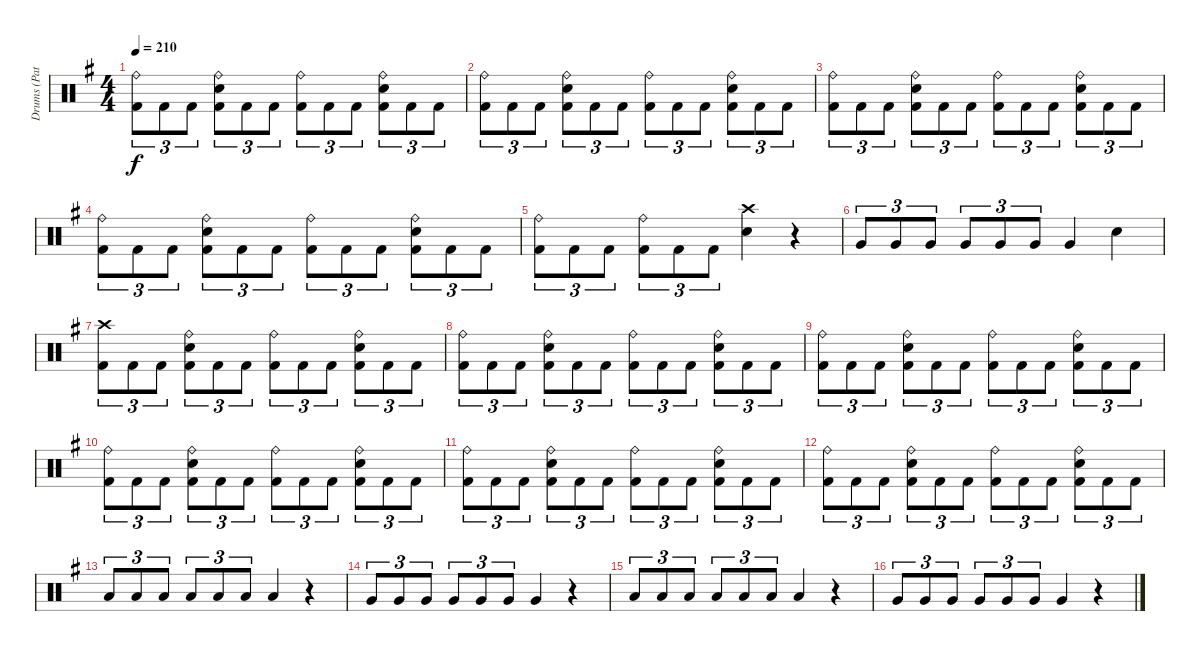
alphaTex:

\track ("Drums (Patrick Johansson)" "Drums (Pat") {instrument percussion}
\staff {score}
\articulation defaults
\ts (4 4)
\tempo 210
\clef neutral
\ks g
("Ride (bell)" "Kick (hit) 2").8{tu (3 2) dy f} "Kick (hit) 2".8{tu (3 2)} "Kick (hit) 2".8{tu (3 2)} ("Ride (bell)" "Electric Snare (hit)" "Kick (hit) 2").8{tu (3 2)} "Kick (hit) 2".8{tu (3 2)} "Kick (hit) 2".8{tu (3 2)} ("Ride (bell)" "Kick (hit) 2").8{tu (3 2)} "Kick (hit) 2".8{tu (3 2)} "Kick (hit) 2".8{tu (3 2)} ("Ride (bell)" "Electric Snare (hit)" "Kick (hit) 2").8{tu (3 2)} "Kick (hit) 2".8{tu (3 2)} "Kick (hit) 2".8{tu (3 2)} |
("Ride (bell)" "Kick (hit) 2").8{tu (3 2)} "Kick (hit) 2".8{tu (3 2)} "Kick (hit) 2".8{tu (3 2)} ("Ride (bell)" "Electric Snare (hit)" "Kick (hit) 2").8{tu (3 2)} "Kick (hit) 2".8{tu (3 2)} "Kick (hit) 2".8{tu (3 2)} ("Ride (bell)" "Kick (hit) 2").8{tu (3 2)} "Kick (hit) 2".8{tu (3 2)} "Kick (hit) 2".8{tu (3 2)} ("Ride (bell)" "Electric Snare (hit)" "Kick (hit) 2").8{tu (3 2)} "Kick (hit) 2".8{tu (3 2)} "Kick (hit) 2".8{tu (3 2)} |
("Ride (bell)" "Kick (hit) 2").8{tu (3 2)} "Kick (hit) 2".8{tu (3 2)} "Kick (hit) 2".8{tu (3 2)} ("Ride (bell)" "Electric Snare (hit)" "Kick (hit) 2").8{tu (3 2)} "Kick (hit) 2".8{tu (3 2)} "Kick (hit) 2".8{tu (3 2)} ("Ride (bell)" "Kick (hit) 2").8{tu (3 2)} "Kick (hit) 2".8{tu (3 2)} "Kick (hit) 2".8{tu (3 2)} ("Ride (bell)" "Electric Snare (hit)" "Kick (hit) 2").8{tu (3 2)} "Kick (hit) 2".8{tu (3 2)} "Kick (hit) 2".8{tu (3 2)} |
("Ride (bell)" "Kick (hit) 2").8{tu (3 2)} "Kick (hit) 2".8{tu (3 2)} "Kick (hit) 2".8{tu (3 2)} ("Ride (bell)" "Electric Snare (hit)" "Kick (hit) 2").8{tu (3 2)} "Kick (hit) 2".8{tu (3 2)} "Kick (hit) 2".8{tu (3 2)} ("Ride (bell)" "Kick (hit) 2").8{tu (3 2)} "Kick (hit) 2".8{tu (3 2)} "Kick (hit) 2".8{tu (3 2)} ("Ride (bell)" "Electric Snare (hit)" "Kick (hit) 2").8{tu (3 2)} "Kick (hit) 2".8{tu (3 2)} "Kick (hit) 2".8{tu (3 2)} |
("Ride (bell)" "Kick (hit) 2").8{tu (3 2)} "Kick (hit) 2".8{tu (3 2)} "Kick (hit) 2".8{tu (3 2)} ("Ride (bell)" "Kick (hit) 2").8{tu (3 2)} "Kick (hit) 2".8{tu (3 2)} "Kick (hit) 2".8{tu (3 2)} ("Crash high (hit)" "Electric Snare (hit)").4 r.4 |
"Very Low Tom (hit)".8{tu (3 2)} "Very Low Tom (hit)".8{tu (3 2)} "Very Low Tom (hit)".8{tu (3 2)} "Very Low Tom (hit)".8{tu (3 2)} "Very Low Tom (hit)".8{tu (3 2)} "Very Low Tom (hit)".8{tu (3 2)} "Very Low Tom (hit)".4 "Electric Snare (hit)".4 |
("Crash high (hit)" "Kick (hit) 2").8{tu (3 2)} "Kick (hit) 2".8{tu (3 2)} "Kick (hit) 2".8{tu (3 2)} ("Ride (bell)" "Electric Snare (hit)" "Kick (hit) 2").8{tu (3 2)} "Kick (hit) 2".8{tu (3 2)} "Kick (hit) 2".8{tu (3 2)} ("Ride (bell)" "Kick (hit) 2").8{tu (3 2)} "Kick (hit) 2".8{tu (3 2)} "Kick (hit) 2".8{tu (3 2)} ("Ride (bell)" "Electric Snare (hit)" "Kick (hit) 2").8{tu (3 2)} "Kick (hit) 2".8{tu (3 2)} "Kick (hit) 2".8{tu (3 2)} |
("Ride (bell)" "Kick (hit) 2").8{tu (3 2)} "Kick (hit) 2".8{tu (3 2)} "Kick (hit) 2".8{tu (3 2)} ("Ride (bell)" "Electric Snare (hit)" "Kick (hit) 2").8{tu (3 2)} "Kick (hit) 2".8{tu (3 2)} "Kick (hit) 2".8{tu (3 2)} ("Ride (bell)" "Kick (hit) 2").8{tu (3 2)} "Kick (hit) 2".8{tu (3 2)} "Kick (hit) 2".8{tu (3 2)} ("Ride (bell)" "Electric Snare (hit)" "Kick (hit) 2").8{tu (3 2)} "Kick (hit) 2".8{tu (3 2)} "Kick (hit) 2".8{tu (3 2)} |
("Ride (bell)" "Kick (hit) 2").8{tu (3 2)} "Kick (hit) 2".8{tu (3 2)} "Kick (hit) 2".8{tu (3 2)} ("Ride (bell)" "Electric Snare (hit)" "Kick (hit) 2").8{tu (3 2)} "Kick (hit) 2".8{tu (3 2)} "Kick (hit) 2".8{tu (3 2)} ("Ride (bell)" "Kick (hit) 2").8{tu (3 2)} "Kick (hit) 2".8{tu (3 2)} "Kick (hit) 2".8{tu (3 2)} ("Ride (bell)" "Electric Snare (hit)" "Kick (hit) 2").8{tu (3 2)} "Kick (hit) 2".8{tu (3 2)} "Kick (hit) 2".8{tu (3 2)} |
("Ride (bell)" "Kick (hit) 2").8{tu (3 2)} "Kick (hit) 2".8{tu (3 2)} "Kick (hit) 2".8{tu (3 2)} ("Ride (bell)" "Electric Snare (hit)" "Kick (hit) 2").8{tu (3 2)} "Kick (hit) 2".8{tu (3 2)} "Kick (hit) 2".8{tu (3 2)} ("Ride (bell)" "Kick (hit) 2").8{tu (3 2)} "Kick (hit) 2".8{tu (3 2)} "Kick (hit) 2".8{tu (3 2)} ("Ride (bell)" "Electric Snare (hit)" "Kick (hit) 2").8{tu (3 2)} "Kick (hit) 2".8{tu (3 2)} "Kick (hit) 2".8{tu (3 2)} |
("Ride (bell)" "Kick (hit) 2").8{tu (3 2)} "Kick (hit) 2".8{tu (3 2)} "Kick (hit) 2".8{tu (3 2)} ("Ride (bell)" "Electric Snare (hit)" "Kick (hit) 2").8{tu (3 2)} "Kick (hit) 2".8{tu (3 2)} "Kick (hit) 2".8{tu (3 2)} ("Ride (bell)" "Kick (hit) 2").8{tu (3 2)} "Kick (hit) 2".8{tu (3 2)} "Kick (hit) 2".8{tu (3 2)} ("Ride (bell)" "Electric Snare (hit)" "Kick (hit) 2").8{tu (3 2)} "Kick (hit) 2".8{tu (3 2)} "Kick (hit) 2".8{tu (3 2)} |
("Ride (bell)" "Kick (hit) 2").8{tu (3 2)} "Kick (hit) 2".8{tu (3 2)} "Kick (hit) 2".8{tu (3 2)} ("Ride (bell)" "Electric Snare (hit)" "Kick (hit) 2").8{tu (3 2)} "Kick (hit) 2".8{tu (3 2)} "Kick (hit) 2".8{tu (3 2)} ("Ride (bell)" "Kick (hit) 2").8{tu (3 2)} "Kick (hit) 2".8{tu (3 2)} "Kick (hit) 2".8{tu (3 2)} ("Ride (bell)" "Electric Snare (hit)" "Kick (hit) 2").8{tu (3 2)} "Kick (hit) 2".8{tu (3 2)} "Kick (hit) 2".8{tu (3 2)} |
"Low Tom (hit)".8{tu (3 2)} "Low Tom (hit)".8{tu (3 2)} "Low Tom (hit)".8{tu (3 2)} "Low Tom (hit)".8{tu (3 2)} "Low Tom (hit)".8{tu (3 2)} "Low Tom (hit)".8{tu (3 2)} "Low Tom (hit)".4 r.4 |
"Very Low Tom (hit)".8{tu (3 2)} "Very Low Tom (hit)".8{tu (3 2)} "Very Low Tom (hit)".8{tu (3 2)} "Very Low Tom (hit)".8{tu (3 2)} "Very Low Tom (hit)".8{tu (3 2)} "Very Low Tom (hit)".8{tu (3 2)} "Very Low Tom (hit)".4 r.4 |
"Low Tom (hit)".8{tu (3 2)} "Low Tom (hit)".8{tu (3 2)} "Low Tom (hit)".8{tu (3 2)} "Low Tom (hit)".8{tu (3 2)} "Low Tom (hit)".8{tu (3 2)} "Low Tom (hit)".8{tu (3 2)} "Low Tom (hit)".4 r.4 |
"Very Low Tom (hit)".8{tu (3 2)} "Very Low Tom (hit)".8{tu (3 2)} "Very Low Tom (hit)".8{tu (3 2)} "Very Low Tom (hit)".8{tu (3 2)} "Very Low Tom (hit)".8{tu (3 2)} "Very Low Tom (hit)".8{tu (3 2)} "Very Low Tom (hit)".4 r.4
